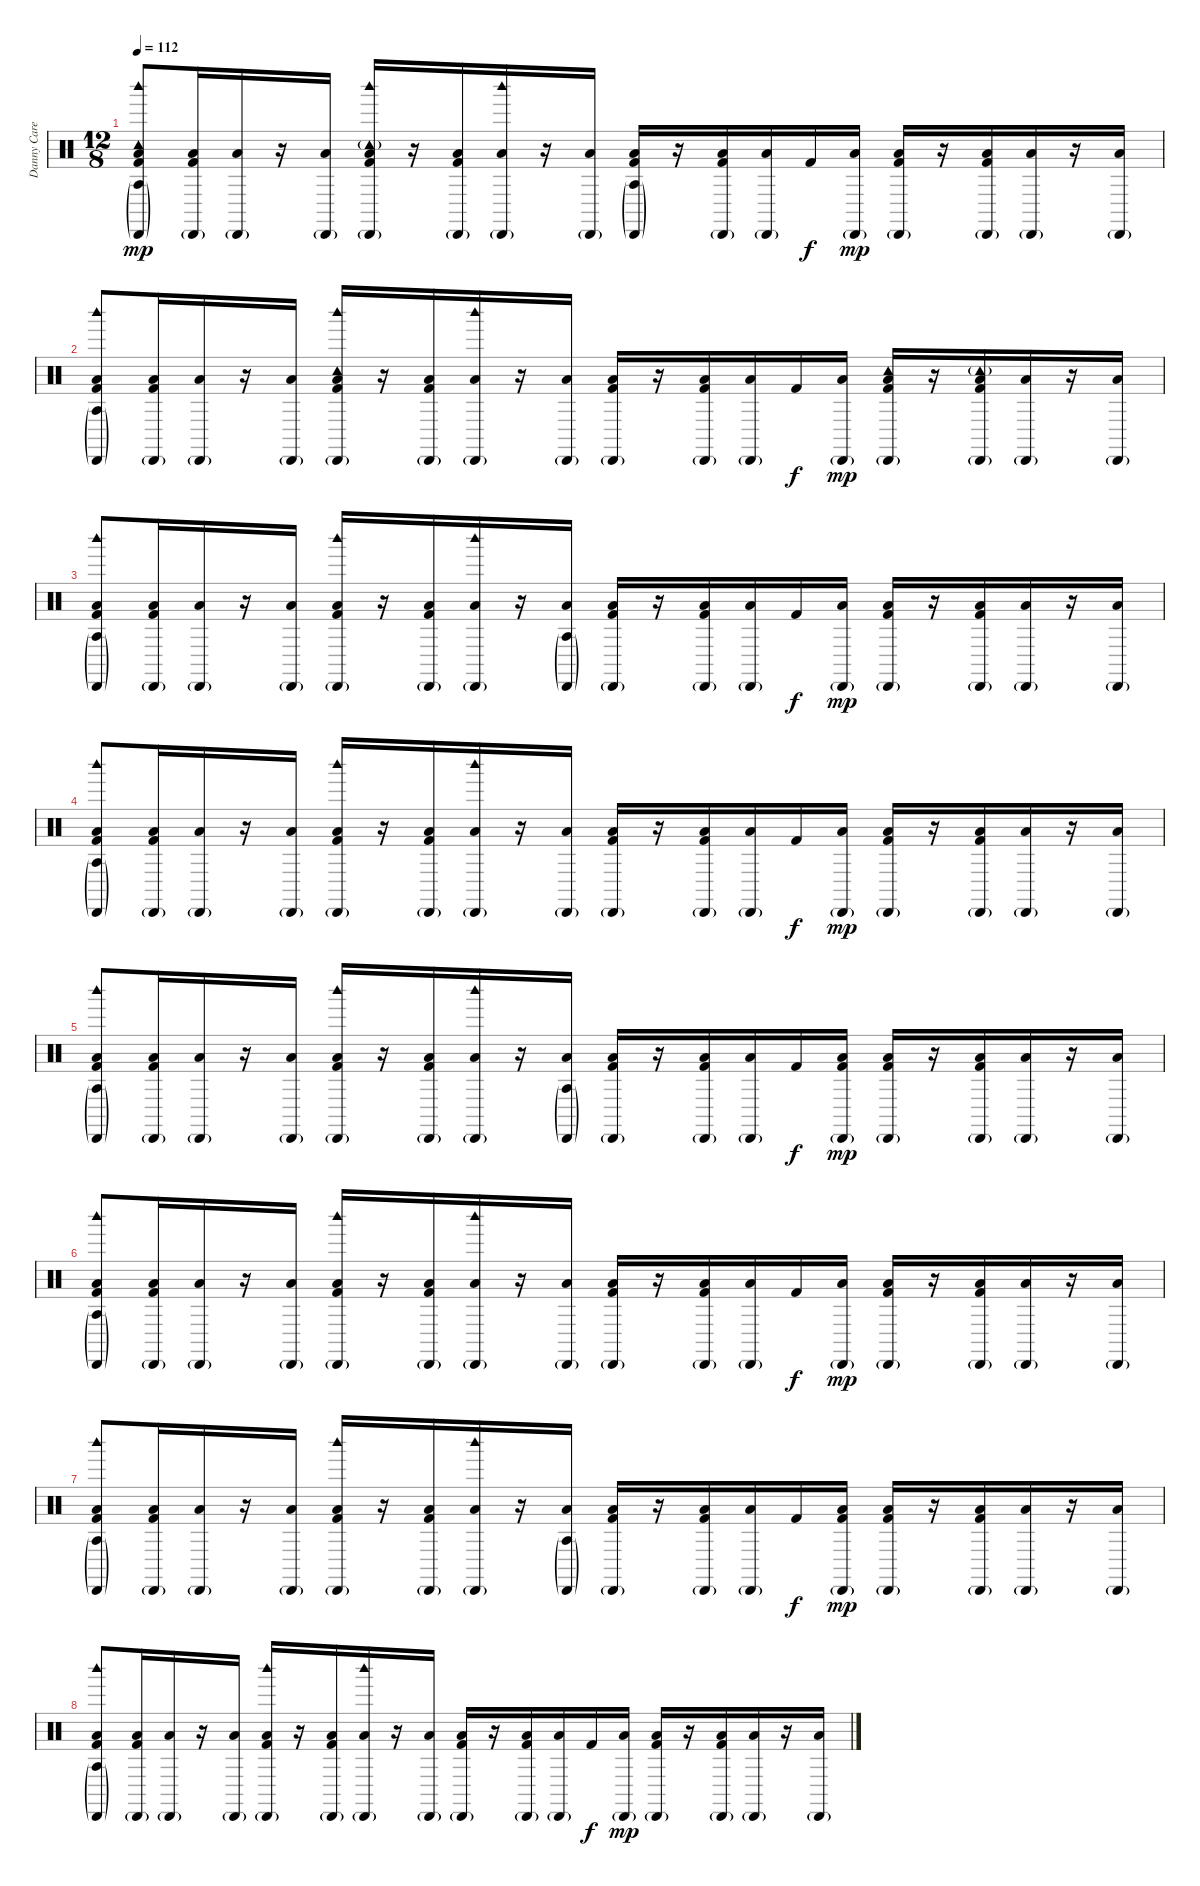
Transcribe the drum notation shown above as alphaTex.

\track ("Danny Carey" "Danny Care") {instrument percussion}
\staff {score}
\articulation defaults
\ts (12 8)
\tempo 112
\clef neutral
\ks c
("Low Floor Tom (hit)" "Tambourine (hit)" "Agogo tow (hit)"{g} "Cabasa (hit)"{g} "Woodblock high (hit)" "Kick (hit) 2").8{dy mp} ("Low Floor Tom (hit)" "Cabasa (hit)"{g} "Kick (hit) 2").16 ("Low Floor Tom (hit)" "Cabasa (hit)"{g}).16 r.16 ("Low Floor Tom (hit)" "Cabasa (hit)"{g}).16 ("Low Floor Tom (hit)" "Tambourine (hit)"{g} "Cabasa (hit)"{g} "Woodblock high (hit)" "Kick (hit) 2").16 r.16 ("Low Floor Tom (hit)" "Cabasa (hit)"{g} "Kick (hit) 2").16 ("Low Floor Tom (hit)" "Cabasa (hit)"{g} "Woodblock high (hit)").16 r.16 ("Low Floor Tom (hit)" "Cabasa (hit)"{g}).16 ("Low Floor Tom (hit)" "Agogo tow (hit)"{g} "Cabasa (hit)"{g} "Kick (hit) 2").16 r.16 ("Low Floor Tom (hit)" "Cabasa (hit)"{g} "Kick (hit) 2").16 ("Low Floor Tom (hit)" "Cabasa (hit)"{g}).16 "Kick (hit) 2".16{dy f} ("Low Floor Tom (hit)" "Cabasa (hit)"{g}).16{dy mp} ("Low Floor Tom (hit)" "Cabasa (hit)"{g} "Kick (hit) 2").16 r.16 ("Low Floor Tom (hit)" "Cabasa (hit)"{g} "Kick (hit) 2").16 ("Low Floor Tom (hit)" "Cabasa (hit)"{g}).16 r.16 ("Low Floor Tom (hit)" "Cabasa (hit)"{g}).16 |
("Low Floor Tom (hit)" "Agogo tow (hit)"{g} "Cabasa (hit)"{g} "Woodblock high (hit)" "Kick (hit) 2").8 ("Low Floor Tom (hit)" "Cabasa (hit)"{g} "Kick (hit) 2").16 ("Low Floor Tom (hit)" "Cabasa (hit)"{g}).16 r.16 ("Low Floor Tom (hit)" "Cabasa (hit)"{g}).16 ("Low Floor Tom (hit)" "Tambourine (hit)" "Cabasa (hit)"{g} "Woodblock high (hit)" "Kick (hit) 2").16 r.16 ("Low Floor Tom (hit)" "Cabasa (hit)"{g} "Kick (hit) 2").16 ("Low Floor Tom (hit)" "Cabasa (hit)"{g} "Woodblock high (hit)").16 r.16 ("Low Floor Tom (hit)" "Cabasa (hit)"{g}).16 ("Low Floor Tom (hit)" "Cabasa (hit)"{g} "Kick (hit) 2").16 r.16 ("Low Floor Tom (hit)" "Cabasa (hit)"{g} "Kick (hit) 2").16 ("Low Floor Tom (hit)" "Cabasa (hit)"{g}).16 "Kick (hit) 2".16{dy f} ("Low Floor Tom (hit)" "Cabasa (hit)"{g}).16{dy mp} ("Low Floor Tom (hit)" "Tambourine (hit)" "Cabasa (hit)"{g} "Kick (hit) 2").16 r.16 ("Low Floor Tom (hit)" "Tambourine (hit)"{g} "Cabasa (hit)"{g} "Kick (hit) 2").16 ("Low Floor Tom (hit)" "Cabasa (hit)"{g}).16 r.16 ("Low Floor Tom (hit)" "Cabasa (hit)"{g}).16 |
("Low Floor Tom (hit)" "Agogo tow (hit)"{g} "Cabasa (hit)"{g} "Woodblock high (hit)" "Kick (hit) 2").8 ("Low Floor Tom (hit)" "Cabasa (hit)"{g} "Kick (hit) 2").16 ("Low Floor Tom (hit)" "Cabasa (hit)"{g}).16 r.16 ("Low Floor Tom (hit)" "Cabasa (hit)"{g}).16 ("Low Floor Tom (hit)" "Cabasa (hit)"{g} "Woodblock high (hit)" "Kick (hit) 2").16 r.16 ("Low Floor Tom (hit)" "Cabasa (hit)"{g} "Kick (hit) 2").16 ("Low Floor Tom (hit)" "Cabasa (hit)"{g} "Woodblock high (hit)").16 r.16 ("Low Floor Tom (hit)" "Agogo tow (hit)"{g} "Cabasa (hit)"{g}).16 ("Low Floor Tom (hit)" "Cabasa (hit)"{g} "Kick (hit) 2").16 r.16 ("Low Floor Tom (hit)" "Cabasa (hit)"{g} "Kick (hit) 2").16 ("Low Floor Tom (hit)" "Cabasa (hit)"{g}).16 "Kick (hit) 2".16{dy f} ("Low Floor Tom (hit)" "Cabasa (hit)"{g}).16{dy mp} ("Low Floor Tom (hit)" "Cabasa (hit)"{g} "Kick (hit) 2").16 r.16 ("Low Floor Tom (hit)" "Cabasa (hit)"{g} "Kick (hit) 2").16 ("Low Floor Tom (hit)" "Cabasa (hit)"{g}).16 r.16 ("Low Floor Tom (hit)" "Cabasa (hit)"{g}).16 |
("Low Floor Tom (hit)" "Agogo tow (hit)"{g} "Cabasa (hit)"{g} "Woodblock high (hit)" "Kick (hit) 2").8 ("Low Floor Tom (hit)" "Cabasa (hit)"{g} "Kick (hit) 2").16 ("Low Floor Tom (hit)" "Cabasa (hit)"{g}).16 r.16 ("Low Floor Tom (hit)" "Cabasa (hit)"{g}).16 ("Low Floor Tom (hit)" "Cabasa (hit)"{g} "Woodblock high (hit)" "Kick (hit) 2").16 r.16 ("Low Floor Tom (hit)" "Cabasa (hit)"{g} "Kick (hit) 2").16 ("Low Floor Tom (hit)" "Cabasa (hit)"{g} "Woodblock high (hit)").16 r.16 ("Low Floor Tom (hit)" "Cabasa (hit)"{g}).16 ("Low Floor Tom (hit)" "Cabasa (hit)"{g} "Kick (hit) 2").16 r.16 ("Low Floor Tom (hit)" "Cabasa (hit)"{g} "Kick (hit) 2").16 ("Low Floor Tom (hit)" "Cabasa (hit)"{g}).16 "Kick (hit) 2".16{dy f} ("Low Floor Tom (hit)" "Cabasa (hit)"{g}).16{dy mp} ("Low Floor Tom (hit)" "Cabasa (hit)"{g} "Kick (hit) 2").16 r.16 ("Low Floor Tom (hit)" "Cabasa (hit)"{g} "Kick (hit) 2").16 ("Low Floor Tom (hit)" "Cabasa (hit)"{g}).16 r.16 ("Low Floor Tom (hit)" "Cabasa (hit)"{g}).16 |
("Low Floor Tom (hit)" "Agogo tow (hit)"{g} "Cabasa (hit)"{g} "Woodblock high (hit)" "Kick (hit) 2").8 ("Low Floor Tom (hit)" "Cabasa (hit)"{g} "Kick (hit) 2").16 ("Low Floor Tom (hit)" "Cabasa (hit)"{g}).16 r.16 ("Low Floor Tom (hit)" "Cabasa (hit)"{g}).16 ("Low Floor Tom (hit)" "Cabasa (hit)"{g} "Woodblock high (hit)" "Kick (hit) 2").16 r.16 ("Low Floor Tom (hit)" "Cabasa (hit)"{g} "Kick (hit) 2").16 ("Low Floor Tom (hit)" "Cabasa (hit)"{g} "Woodblock high (hit)").16 r.16 ("Low Floor Tom (hit)" "Agogo tow (hit)"{g} "Cabasa (hit)"{g}).16 ("Low Floor Tom (hit)" "Cabasa (hit)"{g} "Kick (hit) 2").16 r.16 ("Low Floor Tom (hit)" "Cabasa (hit)"{g} "Kick (hit) 2").16 ("Low Floor Tom (hit)" "Cabasa (hit)"{g}).16 "Kick (hit) 2".16{dy f} ("Low Floor Tom (hit)" "Cabasa (hit)"{g} "Kick (hit) 2").16{dy mp} ("Low Floor Tom (hit)" "Cabasa (hit)"{g} "Kick (hit) 2").16 r.16 ("Low Floor Tom (hit)" "Cabasa (hit)"{g} "Kick (hit) 2").16 ("Low Floor Tom (hit)" "Cabasa (hit)"{g}).16 r.16 ("Low Floor Tom (hit)" "Cabasa (hit)"{g}).16 |
("Low Floor Tom (hit)" "Agogo tow (hit)"{g} "Cabasa (hit)"{g} "Woodblock high (hit)" "Kick (hit) 2").8 ("Low Floor Tom (hit)" "Cabasa (hit)"{g} "Kick (hit) 2").16 ("Low Floor Tom (hit)" "Cabasa (hit)"{g}).16 r.16 ("Low Floor Tom (hit)" "Cabasa (hit)"{g}).16 ("Low Floor Tom (hit)" "Cabasa (hit)"{g} "Woodblock high (hit)" "Kick (hit) 2").16 r.16 ("Low Floor Tom (hit)" "Cabasa (hit)"{g} "Kick (hit) 2").16 ("Low Floor Tom (hit)" "Cabasa (hit)"{g} "Woodblock high (hit)").16 r.16 ("Low Floor Tom (hit)" "Cabasa (hit)"{g}).16 ("Low Floor Tom (hit)" "Cabasa (hit)"{g} "Kick (hit) 2").16 r.16 ("Low Floor Tom (hit)" "Cabasa (hit)"{g} "Kick (hit) 2").16 ("Low Floor Tom (hit)" "Cabasa (hit)"{g}).16 "Kick (hit) 2".16{dy f} ("Low Floor Tom (hit)" "Cabasa (hit)"{g}).16{dy mp} ("Low Floor Tom (hit)" "Cabasa (hit)"{g} "Kick (hit) 2").16 r.16 ("Low Floor Tom (hit)" "Cabasa (hit)"{g} "Kick (hit) 2").16 ("Low Floor Tom (hit)" "Cabasa (hit)"{g}).16 r.16 ("Low Floor Tom (hit)" "Cabasa (hit)"{g}).16 |
("Low Floor Tom (hit)" "Agogo tow (hit)"{g} "Cabasa (hit)"{g} "Woodblock high (hit)" "Kick (hit) 2").8 ("Low Floor Tom (hit)" "Cabasa (hit)"{g} "Kick (hit) 2").16 ("Low Floor Tom (hit)" "Cabasa (hit)"{g}).16 r.16 ("Low Floor Tom (hit)" "Cabasa (hit)"{g}).16 ("Low Floor Tom (hit)" "Cabasa (hit)"{g} "Woodblock high (hit)" "Kick (hit) 2").16 r.16 ("Low Floor Tom (hit)" "Cabasa (hit)"{g} "Kick (hit) 2").16 ("Low Floor Tom (hit)" "Cabasa (hit)"{g} "Woodblock high (hit)").16 r.16 ("Low Floor Tom (hit)" "Agogo tow (hit)"{g} "Cabasa (hit)"{g}).16 ("Low Floor Tom (hit)" "Cabasa (hit)"{g} "Kick (hit) 2").16 r.16 ("Low Floor Tom (hit)" "Cabasa (hit)"{g} "Kick (hit) 2").16 ("Low Floor Tom (hit)" "Cabasa (hit)"{g}).16 "Kick (hit) 2".16{dy f} ("Low Floor Tom (hit)" "Cabasa (hit)"{g} "Kick (hit) 2").16{dy mp} ("Low Floor Tom (hit)" "Cabasa (hit)"{g} "Kick (hit) 2").16 r.16 ("Low Floor Tom (hit)" "Cabasa (hit)"{g} "Kick (hit) 2").16 ("Low Floor Tom (hit)" "Cabasa (hit)"{g}).16 r.16 ("Low Floor Tom (hit)" "Cabasa (hit)"{g}).16 |
("Low Floor Tom (hit)" "Agogo tow (hit)"{g} "Cabasa (hit)"{g} "Woodblock high (hit)" "Kick (hit) 2").8 ("Low Floor Tom (hit)" "Cabasa (hit)"{g} "Kick (hit) 2").16 ("Low Floor Tom (hit)" "Cabasa (hit)"{g}).16 r.16 ("Low Floor Tom (hit)" "Cabasa (hit)"{g}).16 ("Low Floor Tom (hit)" "Cabasa (hit)"{g} "Woodblock high (hit)" "Kick (hit) 2").16 r.16 ("Low Floor Tom (hit)" "Cabasa (hit)"{g} "Kick (hit) 2").16 ("Low Floor Tom (hit)" "Cabasa (hit)"{g} "Woodblock high (hit)").16 r.16 ("Low Floor Tom (hit)" "Cabasa (hit)"{g}).16 ("Low Floor Tom (hit)" "Cabasa (hit)"{g} "Kick (hit) 2").16 r.16 ("Low Floor Tom (hit)" "Cabasa (hit)"{g} "Kick (hit) 2").16 ("Low Floor Tom (hit)" "Cabasa (hit)"{g}).16 "Kick (hit) 2".16{dy f} ("Low Floor Tom (hit)" "Cabasa (hit)"{g}).16{dy mp} ("Low Floor Tom (hit)" "Cabasa (hit)"{g} "Kick (hit) 2").16 r.16 ("Low Floor Tom (hit)" "Cabasa (hit)"{g} "Kick (hit) 2").16 ("Low Floor Tom (hit)" "Cabasa (hit)"{g}).16 r.16 ("Low Floor Tom (hit)" "Cabasa (hit)"{g}).16
